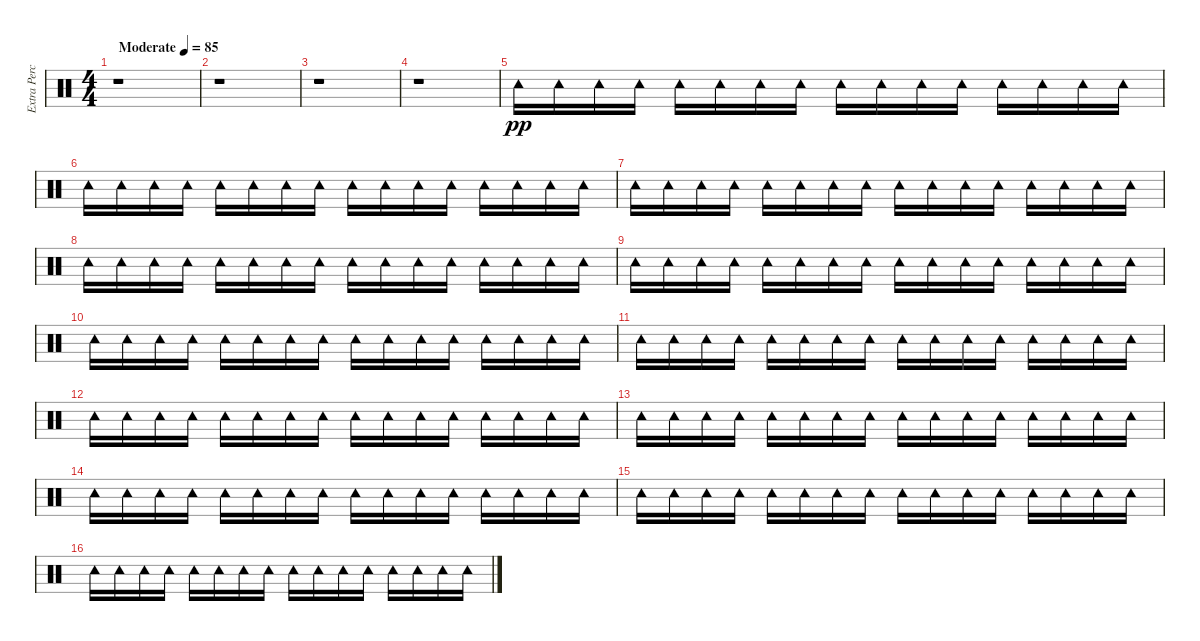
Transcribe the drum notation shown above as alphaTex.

\track ("Extra Percussion" "Extra Perc") {instrument percussion}
\staff {score}
\articulation defaults
\ts (4 4)
\tempo (85 "Moderate")
\clef neutral
\ks c
r.1{dy pp} |
r.1 |
r.1 |
r.1 |
"Tambourine (hit)".16 "Tambourine (hit)".16 "Tambourine (hit)".16 "Tambourine (hit)".16 "Tambourine (hit)".16 "Tambourine (hit)".16 "Tambourine (hit)".16 "Tambourine (hit)".16 "Tambourine (hit)".16 "Tambourine (hit)".16 "Tambourine (hit)".16 "Tambourine (hit)".16 "Tambourine (hit)".16 "Tambourine (hit)".16 "Tambourine (hit)".16 "Tambourine (hit)".16 |
"Tambourine (hit)".16 "Tambourine (hit)".16 "Tambourine (hit)".16 "Tambourine (hit)".16 "Tambourine (hit)".16 "Tambourine (hit)".16 "Tambourine (hit)".16 "Tambourine (hit)".16 "Tambourine (hit)".16 "Tambourine (hit)".16 "Tambourine (hit)".16 "Tambourine (hit)".16 "Tambourine (hit)".16 "Tambourine (hit)".16 "Tambourine (hit)".16 "Tambourine (hit)".16 |
"Tambourine (hit)".16 "Tambourine (hit)".16 "Tambourine (hit)".16 "Tambourine (hit)".16 "Tambourine (hit)".16 "Tambourine (hit)".16 "Tambourine (hit)".16 "Tambourine (hit)".16 "Tambourine (hit)".16 "Tambourine (hit)".16 "Tambourine (hit)".16 "Tambourine (hit)".16 "Tambourine (hit)".16 "Tambourine (hit)".16 "Tambourine (hit)".16 "Tambourine (hit)".16 |
"Tambourine (hit)".16 "Tambourine (hit)".16 "Tambourine (hit)".16 "Tambourine (hit)".16 "Tambourine (hit)".16 "Tambourine (hit)".16 "Tambourine (hit)".16 "Tambourine (hit)".16 "Tambourine (hit)".16 "Tambourine (hit)".16 "Tambourine (hit)".16 "Tambourine (hit)".16 "Tambourine (hit)".16 "Tambourine (hit)".16 "Tambourine (hit)".16 "Tambourine (hit)".16 |
"Tambourine (hit)".16 "Tambourine (hit)".16 "Tambourine (hit)".16 "Tambourine (hit)".16 "Tambourine (hit)".16 "Tambourine (hit)".16 "Tambourine (hit)".16 "Tambourine (hit)".16 "Tambourine (hit)".16 "Tambourine (hit)".16 "Tambourine (hit)".16 "Tambourine (hit)".16 "Tambourine (hit)".16 "Tambourine (hit)".16 "Tambourine (hit)".16 "Tambourine (hit)".16 |
"Tambourine (hit)".16 "Tambourine (hit)".16 "Tambourine (hit)".16 "Tambourine (hit)".16 "Tambourine (hit)".16 "Tambourine (hit)".16 "Tambourine (hit)".16 "Tambourine (hit)".16 "Tambourine (hit)".16 "Tambourine (hit)".16 "Tambourine (hit)".16 "Tambourine (hit)".16 "Tambourine (hit)".16 "Tambourine (hit)".16 "Tambourine (hit)".16 "Tambourine (hit)".16 |
"Tambourine (hit)".16 "Tambourine (hit)".16 "Tambourine (hit)".16 "Tambourine (hit)".16 "Tambourine (hit)".16 "Tambourine (hit)".16 "Tambourine (hit)".16 "Tambourine (hit)".16 "Tambourine (hit)".16 "Tambourine (hit)".16 "Tambourine (hit)".16 "Tambourine (hit)".16 "Tambourine (hit)".16 "Tambourine (hit)".16 "Tambourine (hit)".16 "Tambourine (hit)".16 |
"Tambourine (hit)".16 "Tambourine (hit)".16 "Tambourine (hit)".16 "Tambourine (hit)".16 "Tambourine (hit)".16 "Tambourine (hit)".16 "Tambourine (hit)".16 "Tambourine (hit)".16 "Tambourine (hit)".16 "Tambourine (hit)".16 "Tambourine (hit)".16 "Tambourine (hit)".16 "Tambourine (hit)".16 "Tambourine (hit)".16 "Tambourine (hit)".16 "Tambourine (hit)".16 |
"Tambourine (hit)".16 "Tambourine (hit)".16 "Tambourine (hit)".16 "Tambourine (hit)".16 "Tambourine (hit)".16 "Tambourine (hit)".16 "Tambourine (hit)".16 "Tambourine (hit)".16 "Tambourine (hit)".16 "Tambourine (hit)".16 "Tambourine (hit)".16 "Tambourine (hit)".16 "Tambourine (hit)".16 "Tambourine (hit)".16 "Tambourine (hit)".16 "Tambourine (hit)".16 |
"Tambourine (hit)".16 "Tambourine (hit)".16 "Tambourine (hit)".16 "Tambourine (hit)".16 "Tambourine (hit)".16 "Tambourine (hit)".16 "Tambourine (hit)".16 "Tambourine (hit)".16 "Tambourine (hit)".16 "Tambourine (hit)".16 "Tambourine (hit)".16 "Tambourine (hit)".16 "Tambourine (hit)".16 "Tambourine (hit)".16 "Tambourine (hit)".16 "Tambourine (hit)".16 |
"Tambourine (hit)".16 "Tambourine (hit)".16 "Tambourine (hit)".16 "Tambourine (hit)".16 "Tambourine (hit)".16 "Tambourine (hit)".16 "Tambourine (hit)".16 "Tambourine (hit)".16 "Tambourine (hit)".16 "Tambourine (hit)".16 "Tambourine (hit)".16 "Tambourine (hit)".16 "Tambourine (hit)".16 "Tambourine (hit)".16 "Tambourine (hit)".16 "Tambourine (hit)".16 |
"Tambourine (hit)".16 "Tambourine (hit)".16 "Tambourine (hit)".16 "Tambourine (hit)".16 "Tambourine (hit)".16 "Tambourine (hit)".16 "Tambourine (hit)".16 "Tambourine (hit)".16 "Tambourine (hit)".16 "Tambourine (hit)".16 "Tambourine (hit)".16 "Tambourine (hit)".16 "Tambourine (hit)".16 "Tambourine (hit)".16 "Tambourine (hit)".16 "Tambourine (hit)".16
